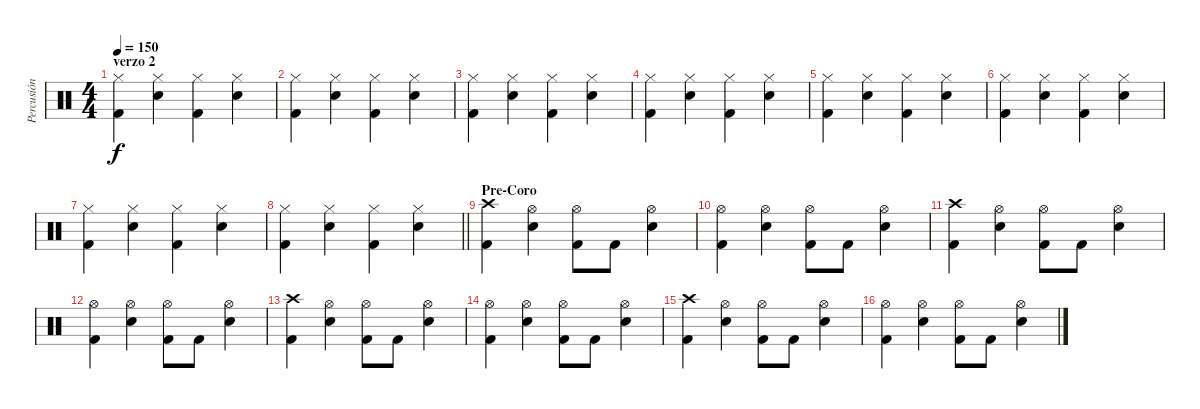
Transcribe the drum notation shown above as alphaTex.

\track ("Percusión" "Percusión") {instrument percussion}
\staff {score}
\articulation defaults
\ts (4 4)
\section ("" "verzo 2")
\tempo 150
\clef neutral
\ks c
("Hi-Hat (closed)" "Kick (hit) 2").4{dy f} ("Hi-Hat (closed)" "Electric Snare (hit)").4 ("Hi-Hat (closed)" "Kick (hit) 2").4 ("Hi-Hat (closed)" "Electric Snare (hit)").4 |
("Hi-Hat (closed)" "Kick (hit) 2").4 ("Hi-Hat (closed)" "Electric Snare (hit)").4 ("Hi-Hat (closed)" "Kick (hit) 2").4 ("Hi-Hat (closed)" "Electric Snare (hit)").4 |
("Hi-Hat (closed)" "Kick (hit) 2").4 ("Hi-Hat (closed)" "Electric Snare (hit)").4 ("Hi-Hat (closed)" "Kick (hit) 2").4 ("Hi-Hat (closed)" "Electric Snare (hit)").4 |
("Hi-Hat (closed)" "Kick (hit) 2").4 ("Hi-Hat (closed)" "Electric Snare (hit)").4 ("Hi-Hat (closed)" "Kick (hit) 2").4 ("Hi-Hat (closed)" "Electric Snare (hit)").4 |
("Hi-Hat (closed)" "Kick (hit) 2").4 ("Hi-Hat (closed)" "Electric Snare (hit)").4 ("Hi-Hat (closed)" "Kick (hit) 2").4 ("Hi-Hat (closed)" "Electric Snare (hit)").4 |
("Hi-Hat (closed)" "Kick (hit) 2").4 ("Hi-Hat (closed)" "Electric Snare (hit)").4 ("Hi-Hat (closed)" "Kick (hit) 2").4 ("Hi-Hat (closed)" "Electric Snare (hit)").4 |
("Hi-Hat (closed)" "Kick (hit) 2").4 ("Hi-Hat (closed)" "Electric Snare (hit)").4 ("Hi-Hat (closed)" "Kick (hit) 2").4 ("Hi-Hat (closed)" "Electric Snare (hit)").4 |
\barLineRight lightlight
("Hi-Hat (closed)" "Kick (hit) 2").4 ("Hi-Hat (closed)" "Electric Snare (hit)").4 ("Hi-Hat (closed)" "Kick (hit) 2").4 ("Hi-Hat (closed)" "Electric Snare (hit)").4 |
\section ("" "Pre-Coro")
("Crash high (hit)" "Kick (hit) 2").4 ("Hi-Hat (open)" "Electric Snare (hit)").4 ("Hi-Hat (open)" "Kick (hit) 2").8 "Kick (hit) 2".8 ("Hi-Hat (open)" "Electric Snare (hit)").4 |
("Hi-Hat (open)" "Kick (hit) 2").4 ("Hi-Hat (open)" "Electric Snare (hit)").4 ("Hi-Hat (open)" "Kick (hit) 2").8 "Kick (hit) 2".8 ("Hi-Hat (open)" "Electric Snare (hit)").4 |
("Crash high (hit)" "Kick (hit) 2").4 ("Hi-Hat (open)" "Electric Snare (hit)").4 ("Hi-Hat (open)" "Kick (hit) 2").8 "Kick (hit) 2".8 ("Hi-Hat (open)" "Electric Snare (hit)").4 |
("Hi-Hat (open)" "Kick (hit) 2").4 ("Hi-Hat (open)" "Electric Snare (hit)").4 ("Hi-Hat (open)" "Kick (hit) 2").8 "Kick (hit) 2".8 ("Hi-Hat (open)" "Electric Snare (hit)").4 |
("Crash high (hit)" "Kick (hit) 2").4 ("Hi-Hat (open)" "Electric Snare (hit)").4 ("Hi-Hat (open)" "Kick (hit) 2").8 "Kick (hit) 2".8 ("Hi-Hat (open)" "Electric Snare (hit)").4 |
("Hi-Hat (open)" "Kick (hit) 2").4 ("Hi-Hat (open)" "Electric Snare (hit)").4 ("Hi-Hat (open)" "Kick (hit) 2").8 "Kick (hit) 2".8 ("Hi-Hat (open)" "Electric Snare (hit)").4 |
("Crash high (hit)" "Kick (hit) 2").4 ("Hi-Hat (open)" "Electric Snare (hit)").4 ("Hi-Hat (open)" "Kick (hit) 2").8 "Kick (hit) 2".8 ("Hi-Hat (open)" "Electric Snare (hit)").4 |
("Hi-Hat (open)" "Kick (hit) 2").4 ("Hi-Hat (open)" "Electric Snare (hit)").4 ("Hi-Hat (open)" "Kick (hit) 2").8 "Kick (hit) 2".8 ("Hi-Hat (open)" "Electric Snare (hit)").4
